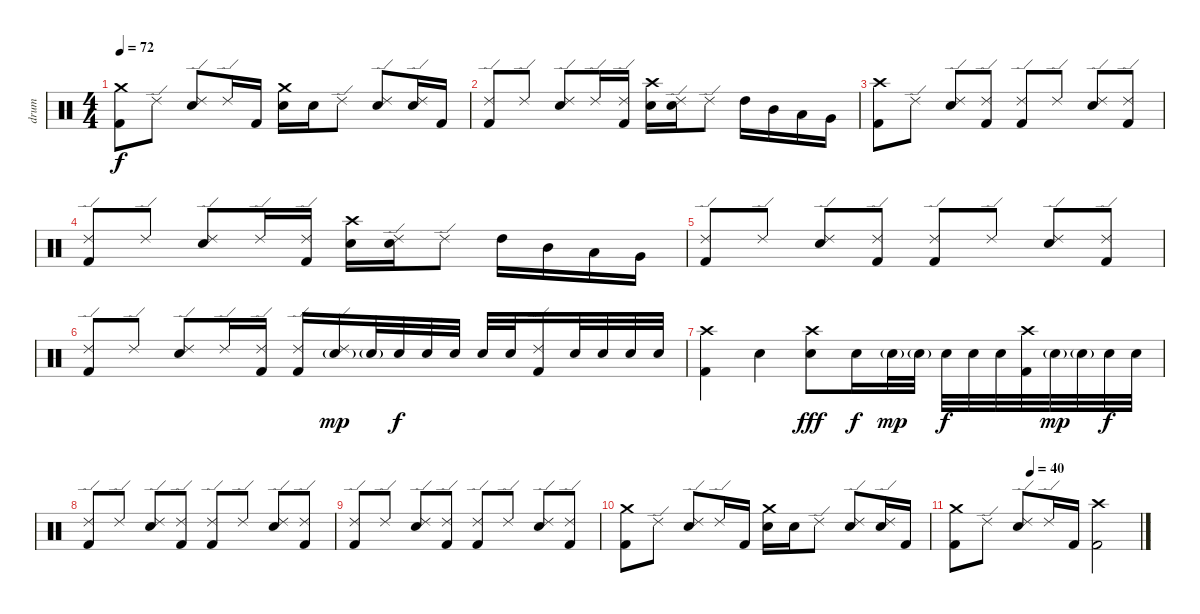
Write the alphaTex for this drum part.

\track ("drum" "drum") {instrument percussion}
\staff {score}
\articulation defaults
\ts (4 4)
\tempo 72
\clef neutral
\ks c
("Crash medium (hit)" "Kick (hit) 2").8{dy f} "Ride (edge) 2".8 ("Ride (edge) 2" "Snare (hit) 2").8 "Ride (edge) 2".16 "Kick (hit) 2".16 ("Crash medium (hit)" "Snare (hit) 2").16 "Snare (hit) 2".16 "Ride (edge) 2".8 ("Ride (edge) 2" "Snare (hit) 2").8 ("Ride (edge) 2" "Snare (hit) 2").16 "Kick (hit) 2".16 |
("Ride (edge) 2" "Kick (hit) 2").8 "Ride (edge) 2".8 ("Ride (edge) 2" "Snare (hit) 2").8 "Ride (edge) 2".16 ("Ride (edge) 2" "Kick (hit) 2").16 ("Crash high (hit)" "Snare (hit) 2").16 ("Ride (edge) 2" "Snare (hit) 2").16 "Ride (edge) 2".8 "High Tom (hit)".16 "Mid Tom (hit)".16 "Low Tom (hit)".16 "Very Low Tom (hit)".16 |
("Crash high (hit)" "Kick (hit) 2").8 "Ride (edge) 2".8 ("Ride (edge) 2" "Snare (hit) 2").8 ("Ride (edge) 2" "Kick (hit) 2").8 ("Ride (edge) 2" "Kick (hit) 2").8 "Ride (edge) 2".8 ("Ride (edge) 2" "Snare (hit) 2").8 ("Ride (edge) 2" "Kick (hit) 2").8 |
("Ride (edge) 2" "Kick (hit) 2").8 "Ride (edge) 2".8 ("Ride (edge) 2" "Snare (hit) 2").8 "Ride (edge) 2".16 ("Ride (edge) 2" "Kick (hit) 2").16 ("Crash high (hit)" "Snare (hit) 2").16 ("Ride (edge) 2" "Snare (hit) 2").16 "Ride (edge) 2".8 "High Tom (hit)".16 "Mid Tom (hit)".16 "Low Tom (hit)".16 "Very Low Tom (hit)".16 |
("Ride (edge) 2" "Kick (hit) 2").8 "Ride (edge) 2".8 ("Ride (edge) 2" "Snare (hit) 2").8 ("Ride (edge) 2" "Kick (hit) 2").8 ("Ride (edge) 2" "Kick (hit) 2").8 "Ride (edge) 2".8 ("Ride (edge) 2" "Snare (hit) 2").8 ("Ride (edge) 2" "Kick (hit) 2").8 |
("Ride (edge) 2" "Kick (hit) 2").8 "Ride (edge) 2".8 ("Ride (edge) 2" "Snare (hit) 2").8 "Ride (edge) 2".16 ("Ride (edge) 2" "Kick (hit) 2").16 ("Ride (edge) 2" "Kick (hit) 2").16 ("Ride (edge) 2" "Snare (hit) 2"{g}).16{dy mp} "Snare (hit) 2"{g}.32 "Snare (hit) 2".32{dy f} "Snare (hit) 2".32 "Snare (hit) 2".32 "Snare (hit) 2".32 "Snare (hit) 2".32 ("Ride (edge) 2" "Kick (hit) 2").16 "Snare (hit) 2".32 "Snare (hit) 2".32 "Snare (hit) 2".32 "Snare (hit) 2".32 |
("Crash high (hit)" "Kick (hit) 2").4 "Snare (hit) 2".4 ("Crash high (hit)" "Snare (hit) 2").8{dy fff} "Snare (hit) 2".16{dy f} "Snare (hit) 2"{g}.32{dy mp} "Snare (hit) 2"{g}.32 "Snare (hit) 2".32{dy f} "Snare (hit) 2".32 "Snare (hit) 2".32 ("Crash high (hit)" "Kick (hit) 2").32 "Snare (hit) 2"{g}.32{dy mp} "Snare (hit) 2"{g}.32 "Snare (hit) 2".32{dy f} "Snare (hit) 2".32 |
("Ride (edge) 2" "Kick (hit) 2").8 "Ride (edge) 2".8 ("Ride (edge) 2" "Snare (hit) 2").8 ("Ride (edge) 2" "Kick (hit) 2").8 ("Ride (edge) 2" "Kick (hit) 2").8 "Ride (edge) 2".8 ("Ride (edge) 2" "Snare (hit) 2").8 ("Ride (edge) 2" "Kick (hit) 2").8 |
("Ride (edge) 2" "Kick (hit) 2").8 "Ride (edge) 2".8 ("Ride (edge) 2" "Snare (hit) 2").8 ("Ride (edge) 2" "Kick (hit) 2").8 ("Ride (edge) 2" "Kick (hit) 2").8 "Ride (edge) 2".8 ("Ride (edge) 2" "Snare (hit) 2").8 ("Ride (edge) 2" "Kick (hit) 2").8 |
("Crash medium (hit)" "Kick (hit) 2").8 "Ride (edge) 2".8 ("Ride (edge) 2" "Snare (hit) 2").8 "Ride (edge) 2".16 "Kick (hit) 2".16 ("Crash medium (hit)" "Snare (hit) 2").16 "Snare (hit) 2".16 "Ride (edge) 2".8 ("Ride (edge) 2" "Snare (hit) 2").8 ("Ride (edge) 2" "Snare (hit) 2").16 "Kick (hit) 2".16 |
\tempo (40 0.40625)
("Crash medium (hit)" "Kick (hit) 2").8 "Ride (edge) 2".8 ("Ride (edge) 2" "Snare (hit) 2").8 "Ride (edge) 2".16 "Kick (hit) 2".16 ("Crash high (hit)" "Kick (hit) 2").2
